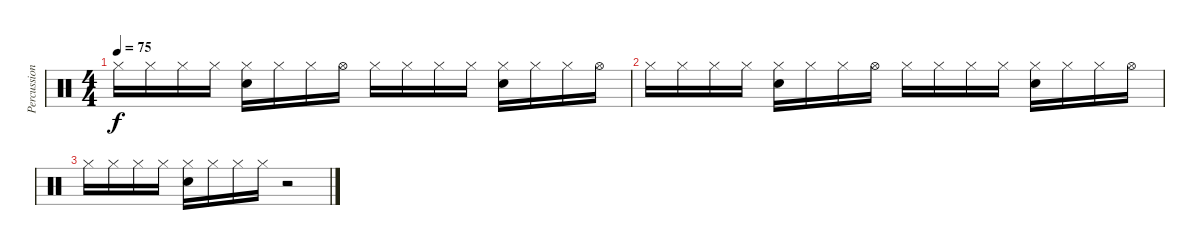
\track ("Percussion" "Percussion") {instrument percussion}
\staff {score}
\articulation defaults
\ts (4 4)
\tempo 75
\clef neutral
\ks c "Hi-Hat (closed)".16{dy f} "Hi-Hat (closed)".16 "Hi-Hat (closed)".16 "Hi-Hat (closed)".16
("Hi-Hat (closed)" "Snare (hit) 2").16 "Hi-Hat (closed)".16 "Hi-Hat (closed)".16 "Hi-Hat (open)".16 "Hi-Hat (closed)".16 "Hi-Hat (closed)".16 "Hi-Hat (closed)".16 "Hi-Hat (closed)".16 ("Hi-Hat (closed)" "Snare (hit) 2").16 "Hi-Hat (closed)".16 "Hi-Hat (closed)".16 "Hi-Hat (open)".16 |
"Hi-Hat (closed)".16 "Hi-Hat (closed)".16 "Hi-Hat (closed)".16 "Hi-Hat (closed)".16 ("Hi-Hat (closed)" "Snare (hit) 2").16 "Hi-Hat (closed)".16 "Hi-Hat (closed)".16 "Hi-Hat (open)".16 "Hi-Hat (closed)".16 "Hi-Hat (closed)".16 "Hi-Hat (closed)".16 "Hi-Hat (closed)".16 ("Hi-Hat (closed)" "Snare (hit) 2").16 "Hi-Hat (closed)".16 "Hi-Hat (closed)".16 "Hi-Hat (open)".16 |
"Hi-Hat (closed)".16 "Hi-Hat (closed)".16 "Hi-Hat (closed)".16 "Hi-Hat (closed)".16 ("Hi-Hat (closed)" "Snare (hit) 2").16 "Hi-Hat (closed)".16 "Hi-Hat (closed)".16 "Hi-Hat (closed)".16 r.2
